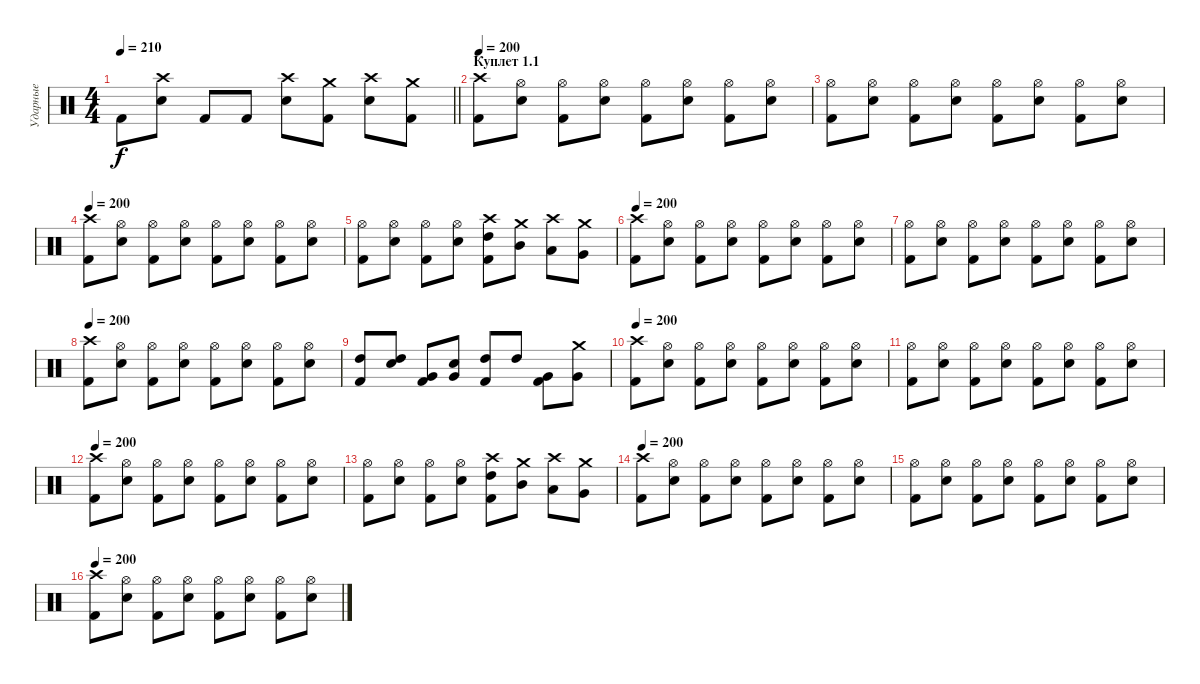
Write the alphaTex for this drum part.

\track ("Ударные" "Ударные") {instrument percussion}
\staff {score}
\articulation defaults
\ts (4 4)
\tempo 210
\clef neutral
\barLineRight lightlight
\ks c "Kick (hit) 2".8{dy f}
("Snare (hit) 2" "Crash high (hit)").8 "Kick (hit) 2".8 "Kick (hit) 2".8 ("Snare (hit) 2" "Crash high (hit)").8 ("Kick (hit) 2" "Crash medium (hit)").8 ("Snare (hit) 2" "Crash high (hit)").8 ("Kick (hit) 2" "Crash medium (hit)").8 |
\section ("" "Куплет 1.1")
\tempo 200
("Crash high (hit)" "Kick (hit) 2").8 ("Hi-Hat (open)" "Snare (hit) 2").8 ("Hi-Hat (open)" "Kick (hit) 2").8 ("Hi-Hat (open)" "Snare (hit) 2").8 ("Hi-Hat (open)" "Kick (hit) 2").8 ("Hi-Hat (open)" "Snare (hit) 2").8 ("Hi-Hat (open)" "Kick (hit) 2").8 ("Hi-Hat (open)" "Snare (hit) 2").8 |
("Hi-Hat (open)" "Kick (hit) 2").8 ("Hi-Hat (open)" "Snare (hit) 2").8 ("Hi-Hat (open)" "Kick (hit) 2").8 ("Hi-Hat (open)" "Snare (hit) 2").8 ("Hi-Hat (open)" "Kick (hit) 2").8 ("Hi-Hat (open)" "Snare (hit) 2").8 ("Hi-Hat (open)" "Kick (hit) 2").8 ("Hi-Hat (open)" "Snare (hit) 2").8 |
\tempo 200
("Crash high (hit)" "Kick (hit) 2").8 ("Hi-Hat (open)" "Snare (hit) 2").8 ("Hi-Hat (open)" "Kick (hit) 2").8 ("Hi-Hat (open)" "Snare (hit) 2").8 ("Hi-Hat (open)" "Kick (hit) 2").8 ("Hi-Hat (open)" "Snare (hit) 2").8 ("Hi-Hat (open)" "Kick (hit) 2").8 ("Hi-Hat (open)" "Snare (hit) 2").8 |
("Hi-Hat (open)" "Kick (hit) 2").8 ("Hi-Hat (open)" "Snare (hit) 2").8 ("Hi-Hat (open)" "Kick (hit) 2").8 ("Hi-Hat (open)" "Snare (hit) 2").8 ("Crash high (hit)" "High Tom (hit)" "Kick (hit) 2").8 ("Crash medium (hit)" "Mid Tom (hit)").8 ("Crash high (hit)" "Low Tom (hit)").8 ("Crash medium (hit)" "Very Low Tom (hit)").8 |
\tempo 200
("Crash high (hit)" "Kick (hit) 2").8 ("Hi-Hat (open)" "Snare (hit) 2").8 ("Hi-Hat (open)" "Kick (hit) 2").8 ("Hi-Hat (open)" "Snare (hit) 2").8 ("Hi-Hat (open)" "Kick (hit) 2").8 ("Hi-Hat (open)" "Snare (hit) 2").8 ("Hi-Hat (open)" "Kick (hit) 2").8 ("Hi-Hat (open)" "Snare (hit) 2").8 |
("Hi-Hat (open)" "Kick (hit) 2").8 ("Hi-Hat (open)" "Snare (hit) 2").8 ("Hi-Hat (open)" "Kick (hit) 2").8 ("Hi-Hat (open)" "Snare (hit) 2").8 ("Hi-Hat (open)" "Kick (hit) 2").8 ("Hi-Hat (open)" "Snare (hit) 2").8 ("Hi-Hat (open)" "Kick (hit) 2").8 ("Hi-Hat (open)" "Snare (hit) 2").8 |
\tempo 200
("Crash high (hit)" "Kick (hit) 2").8 ("Hi-Hat (open)" "Snare (hit) 2").8 ("Hi-Hat (open)" "Kick (hit) 2").8 ("Hi-Hat (open)" "Snare (hit) 2").8 ("Hi-Hat (open)" "Kick (hit) 2").8 ("Hi-Hat (open)" "Snare (hit) 2").8 ("Hi-Hat (open)" "Kick (hit) 2").8 ("Hi-Hat (open)" "Snare (hit) 2").8 |
("High Tom (hit)" "Kick (hit) 2").8 ("High Tom (hit)" "Snare (hit) 2").8 ("Very Low Tom (hit)" "Kick (hit) 2").8 ("Very Low Tom (hit)" "Snare (hit) 2").8 ("High Tom (hit)" "Kick (hit) 2").8 "High Tom (hit)".8 ("Very Low Tom (hit)" "Kick (hit) 2").8 ("Crash medium (hit)" "Very Low Tom (hit)").8 |
\tempo 200
("Crash high (hit)" "Kick (hit) 2").8 ("Hi-Hat (open)" "Snare (hit) 2").8 ("Hi-Hat (open)" "Kick (hit) 2").8 ("Hi-Hat (open)" "Snare (hit) 2").8 ("Hi-Hat (open)" "Kick (hit) 2").8 ("Hi-Hat (open)" "Snare (hit) 2").8 ("Hi-Hat (open)" "Kick (hit) 2").8 ("Hi-Hat (open)" "Snare (hit) 2").8 |
("Hi-Hat (open)" "Kick (hit) 2").8 ("Hi-Hat (open)" "Snare (hit) 2").8 ("Hi-Hat (open)" "Kick (hit) 2").8 ("Hi-Hat (open)" "Snare (hit) 2").8 ("Hi-Hat (open)" "Kick (hit) 2").8 ("Hi-Hat (open)" "Snare (hit) 2").8 ("Hi-Hat (open)" "Kick (hit) 2").8 ("Hi-Hat (open)" "Snare (hit) 2").8 |
\tempo 200
("Crash high (hit)" "Kick (hit) 2").8 ("Hi-Hat (open)" "Snare (hit) 2").8 ("Hi-Hat (open)" "Kick (hit) 2").8 ("Hi-Hat (open)" "Snare (hit) 2").8 ("Hi-Hat (open)" "Kick (hit) 2").8 ("Hi-Hat (open)" "Snare (hit) 2").8 ("Hi-Hat (open)" "Kick (hit) 2").8 ("Hi-Hat (open)" "Snare (hit) 2").8 |
("Hi-Hat (open)" "Kick (hit) 2").8 ("Hi-Hat (open)" "Snare (hit) 2").8 ("Hi-Hat (open)" "Kick (hit) 2").8 ("Hi-Hat (open)" "Snare (hit) 2").8 ("Crash high (hit)" "High Tom (hit)" "Kick (hit) 2").8 ("Crash medium (hit)" "Mid Tom (hit)").8 ("Crash high (hit)" "Low Tom (hit)").8 ("Crash medium (hit)" "Very Low Tom (hit)").8 |
\tempo 200
("Crash high (hit)" "Kick (hit) 2").8 ("Hi-Hat (open)" "Snare (hit) 2").8 ("Hi-Hat (open)" "Kick (hit) 2").8 ("Hi-Hat (open)" "Snare (hit) 2").8 ("Hi-Hat (open)" "Kick (hit) 2").8 ("Hi-Hat (open)" "Snare (hit) 2").8 ("Hi-Hat (open)" "Kick (hit) 2").8 ("Hi-Hat (open)" "Snare (hit) 2").8 |
("Hi-Hat (open)" "Kick (hit) 2").8 ("Hi-Hat (open)" "Snare (hit) 2").8 ("Hi-Hat (open)" "Kick (hit) 2").8 ("Hi-Hat (open)" "Snare (hit) 2").8 ("Hi-Hat (open)" "Kick (hit) 2").8 ("Hi-Hat (open)" "Snare (hit) 2").8 ("Hi-Hat (open)" "Kick (hit) 2").8 ("Hi-Hat (open)" "Snare (hit) 2").8 |
\tempo 200
("Crash high (hit)" "Kick (hit) 2").8 ("Hi-Hat (open)" "Snare (hit) 2").8 ("Hi-Hat (open)" "Kick (hit) 2").8 ("Hi-Hat (open)" "Snare (hit) 2").8 ("Hi-Hat (open)" "Kick (hit) 2").8 ("Hi-Hat (open)" "Snare (hit) 2").8 ("Hi-Hat (open)" "Kick (hit) 2").8 ("Hi-Hat (open)" "Snare (hit) 2").8
